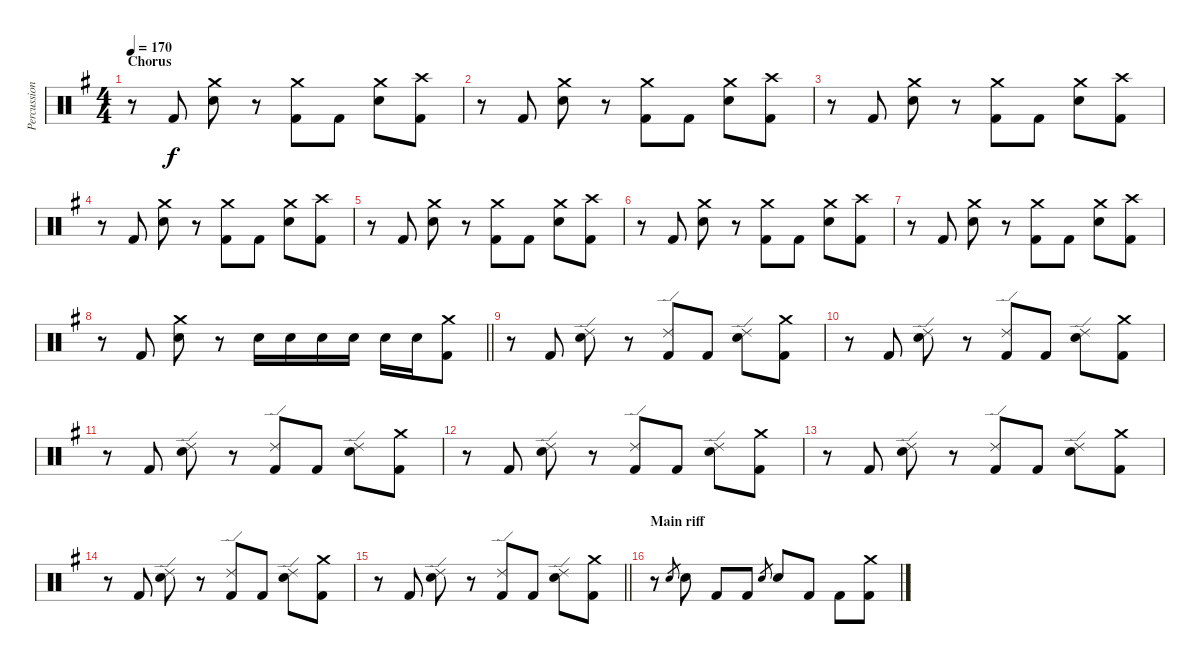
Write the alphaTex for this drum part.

\track ("Percussion" "Percussion") {instrument percussion}
\staff {score}
\articulation defaults
\ts (4 4)
\section ("" "Chorus")
\tempo 170
\clef neutral
\ks g
r.8{dy f} "Kick (hit) 2".8 ("Crash medium (hit)" "Electric Snare (hit)").8 r.8 ("Crash medium (hit)" "Kick (hit) 2").8 "Kick (hit) 2".8 ("Crash medium (hit)" "Electric Snare (hit)").8 ("Crash high (hit)" "Kick (hit) 2").8 |
r.8 "Kick (hit) 2".8 ("Crash medium (hit)" "Electric Snare (hit)").8 r.8 ("Crash medium (hit)" "Kick (hit) 2").8 "Kick (hit) 2".8 ("Crash medium (hit)" "Electric Snare (hit)").8 ("Crash high (hit)" "Kick (hit) 2").8 |
r.8 "Kick (hit) 2".8 ("Crash medium (hit)" "Electric Snare (hit)").8 r.8 ("Crash medium (hit)" "Kick (hit) 2").8 "Kick (hit) 2".8 ("Crash medium (hit)" "Electric Snare (hit)").8 ("Crash high (hit)" "Kick (hit) 2").8 |
r.8 "Kick (hit) 2".8 ("Crash medium (hit)" "Electric Snare (hit)").8 r.8 ("Crash medium (hit)" "Kick (hit) 2").8 "Kick (hit) 2".8 ("Crash medium (hit)" "Electric Snare (hit)").8 ("Crash high (hit)" "Kick (hit) 2").8 |
r.8 "Kick (hit) 2".8 ("Crash medium (hit)" "Electric Snare (hit)").8 r.8 ("Crash medium (hit)" "Kick (hit) 2").8 "Kick (hit) 2".8 ("Crash medium (hit)" "Electric Snare (hit)").8 ("Crash high (hit)" "Kick (hit) 2").8 |
r.8 "Kick (hit) 2".8 ("Crash medium (hit)" "Electric Snare (hit)").8 r.8 ("Crash medium (hit)" "Kick (hit) 2").8 "Kick (hit) 2".8 ("Crash medium (hit)" "Electric Snare (hit)").8 ("Crash high (hit)" "Kick (hit) 2").8 |
r.8 "Kick (hit) 2".8 ("Crash medium (hit)" "Electric Snare (hit)").8 r.8 ("Crash medium (hit)" "Kick (hit) 2").8 "Kick (hit) 2".8 ("Crash medium (hit)" "Electric Snare (hit)").8 ("Crash high (hit)" "Kick (hit) 2").8 |
\barLineRight lightlight
r.8 "Kick (hit) 2".8 ("Crash medium (hit)" "Electric Snare (hit)").8 r.8 "Electric Snare (hit)".16 "Electric Snare (hit)".16 "Electric Snare (hit)".16 "Electric Snare (hit)".16 "Electric Snare (hit)".16 "Electric Snare (hit)".16 ("Crash medium (hit)" "Kick (hit) 2").8 |
\section ("" "")
r.8 "Kick (hit) 2".8 ("Ride (edge) 2" "Electric Snare (hit)").8 r.8 ("Ride (edge) 2" "Kick (hit) 2").8 "Kick (hit) 2".8 ("Ride (edge) 2" "Electric Snare (hit)").8 ("Crash medium (hit)" "Kick (hit) 2").8 |
r.8 "Kick (hit) 2".8 ("Ride (edge) 2" "Electric Snare (hit)").8 r.8 ("Ride (edge) 2" "Kick (hit) 2").8 "Kick (hit) 2".8 ("Ride (edge) 2" "Electric Snare (hit)").8 ("Crash medium (hit)" "Kick (hit) 2").8 |
r.8 "Kick (hit) 2".8 ("Ride (edge) 2" "Electric Snare (hit)").8 r.8 ("Ride (edge) 2" "Kick (hit) 2").8 "Kick (hit) 2".8 ("Ride (edge) 2" "Electric Snare (hit)").8 ("Crash medium (hit)" "Kick (hit) 2").8 |
r.8 "Kick (hit) 2".8 ("Ride (edge) 2" "Electric Snare (hit)").8 r.8 ("Ride (edge) 2" "Kick (hit) 2").8 "Kick (hit) 2".8 ("Ride (edge) 2" "Electric Snare (hit)").8 ("Crash medium (hit)" "Kick (hit) 2").8 |
r.8 "Kick (hit) 2".8 ("Ride (edge) 2" "Electric Snare (hit)").8 r.8 ("Ride (edge) 2" "Kick (hit) 2").8 "Kick (hit) 2".8 ("Ride (edge) 2" "Electric Snare (hit)").8 ("Crash medium (hit)" "Kick (hit) 2").8 |
r.8 "Kick (hit) 2".8 ("Ride (edge) 2" "Electric Snare (hit)").8 r.8 ("Ride (edge) 2" "Kick (hit) 2").8 "Kick (hit) 2".8 ("Ride (edge) 2" "Electric Snare (hit)").8 ("Crash medium (hit)" "Kick (hit) 2").8 |
\barLineRight lightlight
r.8 "Kick (hit) 2".8 ("Ride (edge) 2" "Electric Snare (hit)").8 r.8 ("Ride (edge) 2" "Kick (hit) 2").8 "Kick (hit) 2".8 ("Ride (edge) 2" "Electric Snare (hit)").8 ("Crash medium (hit)" "Kick (hit) 2").8 |
\section ("" "Main riff")
r.8 "Electric Snare (hit)".8{gr} "Electric Snare (hit)".8 "Kick (hit) 2".8 "Kick (hit) 2".8 "Electric Snare (hit)".8{gr} "Electric Snare (hit)".8 "Kick (hit) 2".8 "Kick (hit) 2".8 ("Crash medium (hit)" "Kick (hit) 2").8
